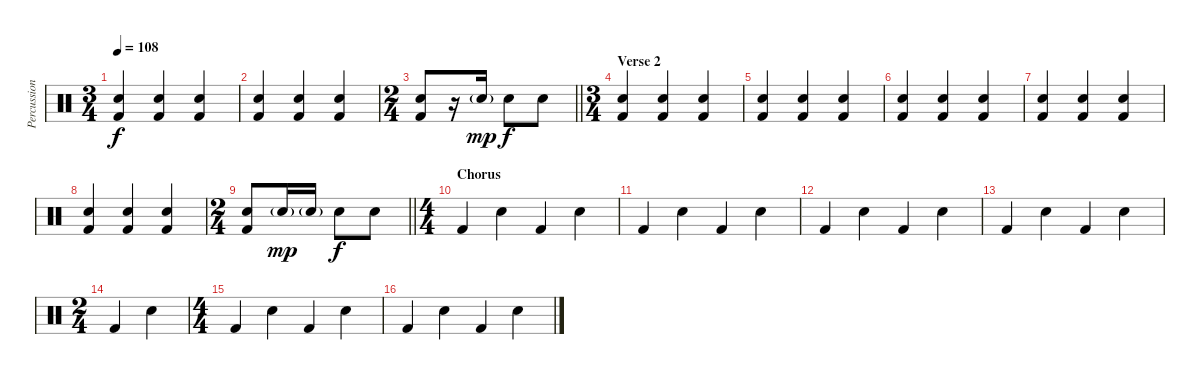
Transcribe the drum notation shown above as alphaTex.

\track ("Percussion" "Percussion") {instrument percussion}
\staff {score}
\articulation defaults
\ts (3 4)
\tempo 108
\clef neutral
\ks c
("Snare (hit) 2" "Kick (hit) 2").4{dy f} ("Snare (hit) 2" "Kick (hit) 2").4 ("Snare (hit) 2" "Kick (hit) 2").4 |
("Snare (hit) 2" "Kick (hit) 2").4 ("Snare (hit) 2" "Kick (hit) 2").4 ("Snare (hit) 2" "Kick (hit) 2").4 |
\ts (2 4)
\barLineRight lightlight
("Snare (hit) 2" "Kick (hit) 2").8 r.16 "Snare (hit) 2"{g}.16{dy mp} "Snare (hit) 2".8{dy f} "Snare (hit) 2".8 |
\ts (3 4)
\section ("" "Verse 2")
("Snare (hit) 2" "Kick (hit) 2").4 ("Snare (hit) 2" "Kick (hit) 2").4 ("Snare (hit) 2" "Kick (hit) 2").4 |
("Snare (hit) 2" "Kick (hit) 2").4 ("Snare (hit) 2" "Kick (hit) 2").4 ("Snare (hit) 2" "Kick (hit) 2").4 |
("Snare (hit) 2" "Kick (hit) 2").4 ("Snare (hit) 2" "Kick (hit) 2").4 ("Snare (hit) 2" "Kick (hit) 2").4 |
("Snare (hit) 2" "Kick (hit) 2").4 ("Snare (hit) 2" "Kick (hit) 2").4 ("Snare (hit) 2" "Kick (hit) 2").4 |
("Snare (hit) 2" "Kick (hit) 2").4 ("Snare (hit) 2" "Kick (hit) 2").4 ("Snare (hit) 2" "Kick (hit) 2").4 |
\ts (2 4)
\barLineRight lightlight
("Snare (hit) 2" "Kick (hit) 2").8 "Snare (hit) 2"{g}.16{dy mp} "Snare (hit) 2"{g}.16 "Snare (hit) 2".8{dy f} "Snare (hit) 2".8 |
\ts (4 4)
\section ("" "Chorus")
"Kick (hit) 2".4 "Snare (hit) 2".4 "Kick (hit) 2".4 "Snare (hit) 2".4 |
"Kick (hit) 2".4 "Snare (hit) 2".4 "Kick (hit) 2".4 "Snare (hit) 2".4 |
"Kick (hit) 2".4 "Snare (hit) 2".4 "Kick (hit) 2".4 "Snare (hit) 2".4 |
"Kick (hit) 2".4 "Snare (hit) 2".4 "Kick (hit) 2".4 "Snare (hit) 2".4 |
\ts (2 4)
"Kick (hit) 2".4 "Snare (hit) 2".4 |
\ts (4 4)
"Kick (hit) 2".4 "Snare (hit) 2".4 "Kick (hit) 2".4 "Snare (hit) 2".4 |
"Kick (hit) 2".4 "Snare (hit) 2".4 "Kick (hit) 2".4 "Snare (hit) 2".4
